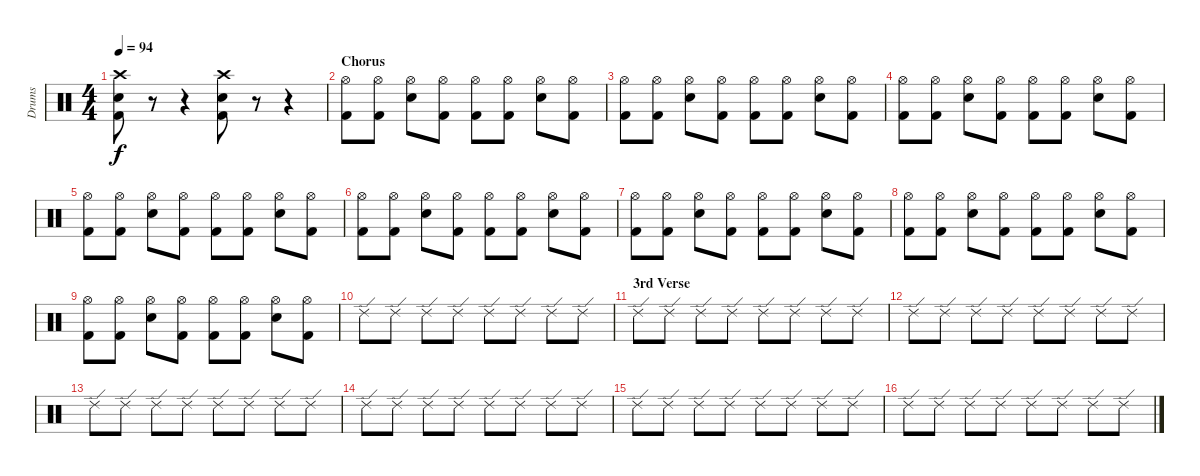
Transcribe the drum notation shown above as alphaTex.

\track ("Drums" "Drums") {instrument percussion}
\staff {score}
\articulation defaults
\ts (4 4)
\tempo 94
\clef neutral
\ks c
("Crash high (hit)" "Kick (hit) 2" "Snare (hit) 2").8{dy f} r.8 r.4 ("Crash high (hit)" "Kick (hit) 2" "Snare (hit) 2").8 r.8 r.4 |
\section ("" "Chorus")
("Kick (hit) 2" "Hi-Hat (open)").8 ("Kick (hit) 2" "Hi-Hat (open)").8 ("Snare (hit) 2" "Hi-Hat (open)").8 ("Kick (hit) 2" "Hi-Hat (open)").8 ("Kick (hit) 2" "Hi-Hat (open)").8 ("Kick (hit) 2" "Hi-Hat (open)").8 ("Snare (hit) 2" "Hi-Hat (open)").8 ("Kick (hit) 2" "Hi-Hat (open)").8 |
("Kick (hit) 2" "Hi-Hat (open)").8 ("Kick (hit) 2" "Hi-Hat (open)").8 ("Snare (hit) 2" "Hi-Hat (open)").8 ("Kick (hit) 2" "Hi-Hat (open)").8 ("Kick (hit) 2" "Hi-Hat (open)").8 ("Kick (hit) 2" "Hi-Hat (open)").8 ("Snare (hit) 2" "Hi-Hat (open)").8 ("Kick (hit) 2" "Hi-Hat (open)").8 |
("Kick (hit) 2" "Hi-Hat (open)").8 ("Kick (hit) 2" "Hi-Hat (open)").8 ("Snare (hit) 2" "Hi-Hat (open)").8 ("Kick (hit) 2" "Hi-Hat (open)").8 ("Kick (hit) 2" "Hi-Hat (open)").8 ("Kick (hit) 2" "Hi-Hat (open)").8 ("Snare (hit) 2" "Hi-Hat (open)").8 ("Kick (hit) 2" "Hi-Hat (open)").8 |
("Kick (hit) 2" "Hi-Hat (open)").8 ("Kick (hit) 2" "Hi-Hat (open)").8 ("Snare (hit) 2" "Hi-Hat (open)").8 ("Kick (hit) 2" "Hi-Hat (open)").8 ("Kick (hit) 2" "Hi-Hat (open)").8 ("Kick (hit) 2" "Hi-Hat (open)").8 ("Snare (hit) 2" "Hi-Hat (open)").8 ("Kick (hit) 2" "Hi-Hat (open)").8 |
("Kick (hit) 2" "Hi-Hat (open)").8 ("Kick (hit) 2" "Hi-Hat (open)").8 ("Snare (hit) 2" "Hi-Hat (open)").8 ("Kick (hit) 2" "Hi-Hat (open)").8 ("Kick (hit) 2" "Hi-Hat (open)").8 ("Kick (hit) 2" "Hi-Hat (open)").8 ("Snare (hit) 2" "Hi-Hat (open)").8 ("Kick (hit) 2" "Hi-Hat (open)").8 |
("Kick (hit) 2" "Hi-Hat (open)").8 ("Kick (hit) 2" "Hi-Hat (open)").8 ("Snare (hit) 2" "Hi-Hat (open)").8 ("Kick (hit) 2" "Hi-Hat (open)").8 ("Kick (hit) 2" "Hi-Hat (open)").8 ("Kick (hit) 2" "Hi-Hat (open)").8 ("Snare (hit) 2" "Hi-Hat (open)").8 ("Kick (hit) 2" "Hi-Hat (open)").8 |
("Kick (hit) 2" "Hi-Hat (open)").8 ("Kick (hit) 2" "Hi-Hat (open)").8 ("Snare (hit) 2" "Hi-Hat (open)").8 ("Kick (hit) 2" "Hi-Hat (open)").8 ("Kick (hit) 2" "Hi-Hat (open)").8 ("Kick (hit) 2" "Hi-Hat (open)").8 ("Snare (hit) 2" "Hi-Hat (open)").8 ("Kick (hit) 2" "Hi-Hat (open)").8 |
("Kick (hit) 2" "Hi-Hat (open)").8 ("Kick (hit) 2" "Hi-Hat (open)").8 ("Snare (hit) 2" "Hi-Hat (open)").8 ("Kick (hit) 2" "Hi-Hat (open)").8 ("Kick (hit) 2" "Hi-Hat (open)").8 ("Kick (hit) 2" "Hi-Hat (open)").8 ("Snare (hit) 2" "Hi-Hat (open)").8 ("Kick (hit) 2" "Hi-Hat (open)").8 |
"Ride (edge) 2".8 "Ride (edge) 2".8 "Ride (edge) 2".8 "Ride (edge) 2".8 "Ride (edge) 2".8 "Ride (edge) 2".8 "Ride (edge) 2".8 "Ride (edge) 2".8 |
\section ("" "3rd Verse")
"Ride (edge) 2".8 "Ride (edge) 2".8 "Ride (edge) 2".8 "Ride (edge) 2".8 "Ride (edge) 2".8 "Ride (edge) 2".8 "Ride (edge) 2".8 "Ride (edge) 2".8 |
"Ride (edge) 2".8 "Ride (edge) 2".8 "Ride (edge) 2".8 "Ride (edge) 2".8 "Ride (edge) 2".8 "Ride (edge) 2".8 "Ride (edge) 2".8 "Ride (edge) 2".8 |
"Ride (edge) 2".8 "Ride (edge) 2".8 "Ride (edge) 2".8 "Ride (edge) 2".8 "Ride (edge) 2".8 "Ride (edge) 2".8 "Ride (edge) 2".8 "Ride (edge) 2".8 |
"Ride (edge) 2".8 "Ride (edge) 2".8 "Ride (edge) 2".8 "Ride (edge) 2".8 "Ride (edge) 2".8 "Ride (edge) 2".8 "Ride (edge) 2".8 "Ride (edge) 2".8 |
"Ride (edge) 2".8 "Ride (edge) 2".8 "Ride (edge) 2".8 "Ride (edge) 2".8 "Ride (edge) 2".8 "Ride (edge) 2".8 "Ride (edge) 2".8 "Ride (edge) 2".8 |
"Ride (edge) 2".8 "Ride (edge) 2".8 "Ride (edge) 2".8 "Ride (edge) 2".8 "Ride (edge) 2".8 "Ride (edge) 2".8 "Ride (edge) 2".8 "Ride (edge) 2".8
